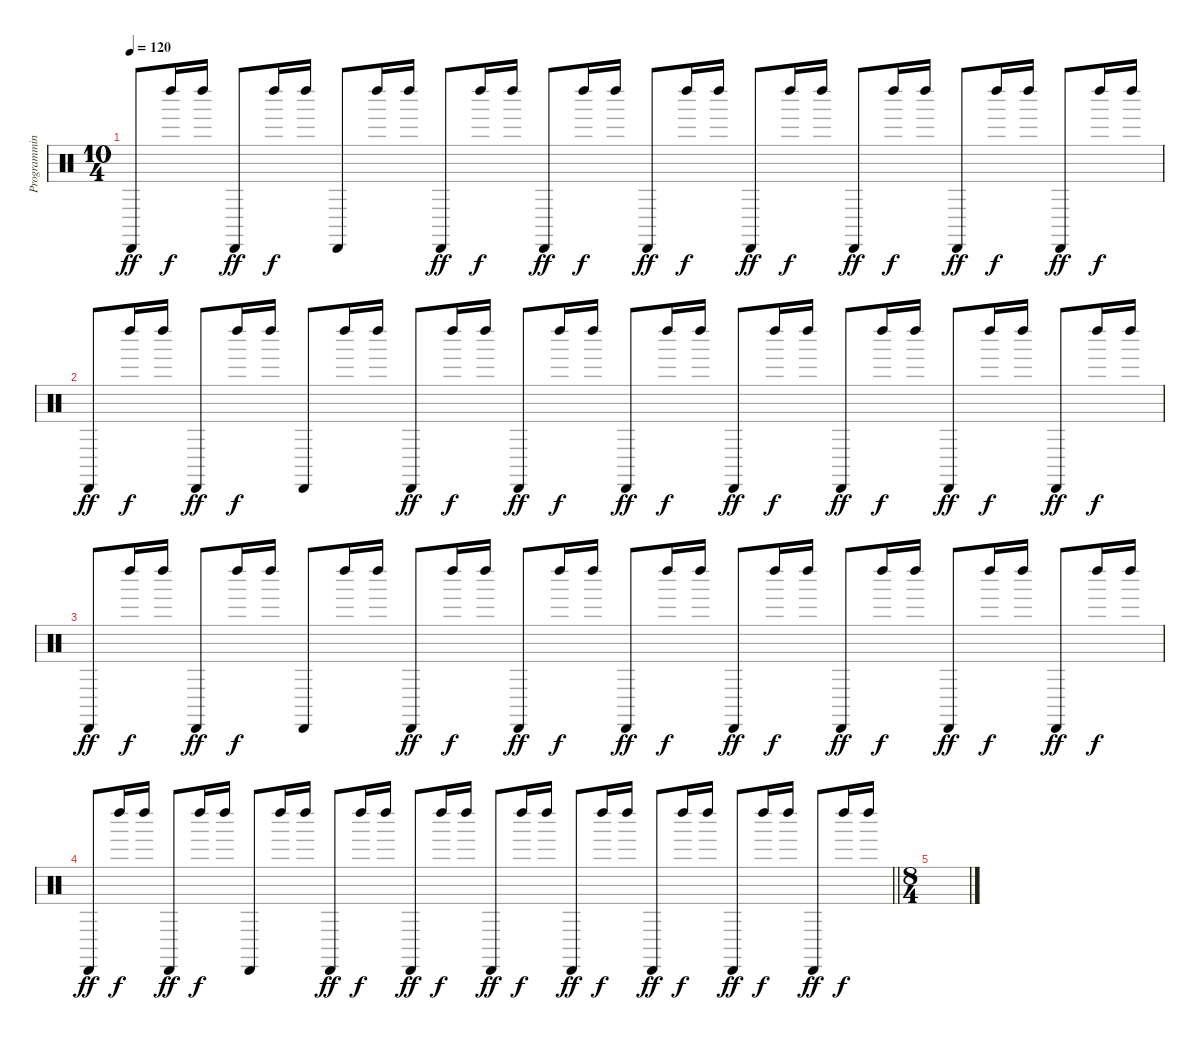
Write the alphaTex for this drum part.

\track ("Programming" "Programmin") {instrument percussion}
\staff {score}
\articulation defaults
\ts (10 4)
\tempo 120
\clef neutral
\ks c "Cabasa (hit)".8{dy ff} "Left Maraca (hit)".16{dy f} "Left Maraca (hit)".16 "Cabasa (hit)".8{dy ff} "Left Maraca (hit)".16{dy f} "Left Maraca (hit)".16 "Cabasa (hit)".8 "Left Maraca (hit)".16 "Left Maraca (hit)".16 "Cabasa (hit)".8{dy ff} "Left Maraca (hit)".16{dy f} "Left Maraca (hit)".16 "Cabasa (hit)".8{dy ff} "Left Maraca (hit)".16{dy f} "Left Maraca (hit)".16 "Cabasa (hit)".8{dy ff} "Left Maraca (hit)".16{dy f} "Left Maraca (hit)".16 "Cabasa (hit)".8{dy ff} "Left Maraca (hit)".16{dy f} "Left Maraca (hit)".16 "Cabasa (hit)".8{dy ff} "Left Maraca (hit)".16{dy f} "Left Maraca (hit)".16 "Cabasa (hit)".8{dy ff} "Left Maraca (hit)".16{dy f} "Left Maraca (hit)".16 "Cabasa (hit)".8{dy ff} "Left Maraca (hit)".16{dy f} "Left Maraca (hit)".16
|
"Cabasa (hit)".8{dy ff} "Left Maraca (hit)".16{dy f} "Left Maraca (hit)".16 "Cabasa (hit)".8{dy ff} "Left Maraca (hit)".16{dy f} "Left Maraca (hit)".16 "Cabasa (hit)".8 "Left Maraca (hit)".16 "Left Maraca (hit)".16 "Cabasa (hit)".8{dy ff} "Left Maraca (hit)".16{dy f} "Left Maraca (hit)".16 "Cabasa (hit)".8{dy ff} "Left Maraca (hit)".16{dy f} "Left Maraca (hit)".16 "Cabasa (hit)".8{dy ff} "Left Maraca (hit)".16{dy f} "Left Maraca (hit)".16 "Cabasa (hit)".8{dy ff} "Left Maraca (hit)".16{dy f} "Left Maraca (hit)".16 "Cabasa (hit)".8{dy ff} "Left Maraca (hit)".16{dy f} "Left Maraca (hit)".16 "Cabasa (hit)".8{dy ff} "Left Maraca (hit)".16{dy f} "Left Maraca (hit)".16 "Cabasa (hit)".8{dy ff} "Left Maraca (hit)".16{dy f} "Left Maraca (hit)".16 |
"Cabasa (hit)".8{dy ff} "Left Maraca (hit)".16{dy f} "Left Maraca (hit)".16 "Cabasa (hit)".8{dy ff} "Left Maraca (hit)".16{dy f} "Left Maraca (hit)".16 "Cabasa (hit)".8 "Left Maraca (hit)".16 "Left Maraca (hit)".16 "Cabasa (hit)".8{dy ff} "Left Maraca (hit)".16{dy f} "Left Maraca (hit)".16 "Cabasa (hit)".8{dy ff} "Left Maraca (hit)".16{dy f} "Left Maraca (hit)".16 "Cabasa (hit)".8{dy ff} "Left Maraca (hit)".16{dy f} "Left Maraca (hit)".16 "Cabasa (hit)".8{dy ff} "Left Maraca (hit)".16{dy f} "Left Maraca (hit)".16 "Cabasa (hit)".8{dy ff} "Left Maraca (hit)".16{dy f} "Left Maraca (hit)".16 "Cabasa (hit)".8{dy ff} "Left Maraca (hit)".16{dy f} "Left Maraca (hit)".16 "Cabasa (hit)".8{dy ff} "Left Maraca (hit)".16{dy f} "Left Maraca (hit)".16 |
\barLineRight lightlight "Cabasa (hit)".8{dy ff} "Left Maraca (hit)".16{dy f} "Left Maraca (hit)".16 "Cabasa (hit)".8{dy ff} "Left Maraca (hit)".16{dy f} "Left Maraca (hit)".16 "Cabasa (hit)".8 "Left Maraca (hit)".16 "Left Maraca (hit)".16 "Cabasa (hit)".8{dy ff} "Left Maraca (hit)".16{dy f} "Left Maraca (hit)".16 "Cabasa (hit)".8{dy ff} "Left Maraca (hit)".16{dy f} "Left Maraca (hit)".16 "Cabasa (hit)".8{dy ff} "Left Maraca (hit)".16{dy f} "Left Maraca (hit)".16 "Cabasa (hit)".8{dy ff} "Left Maraca (hit)".16{dy f} "Left Maraca (hit)".16 "Cabasa (hit)".8{dy ff} "Left Maraca (hit)".16{dy f} "Left Maraca (hit)".16 "Cabasa (hit)".8{dy ff} "Left Maraca (hit)".16{dy f} "Left Maraca (hit)".16 "Cabasa (hit)".8{dy ff} "Left Maraca (hit)".16{dy f} "Left Maraca (hit)".16
|
\ts (8 4)
\section ("" "")
